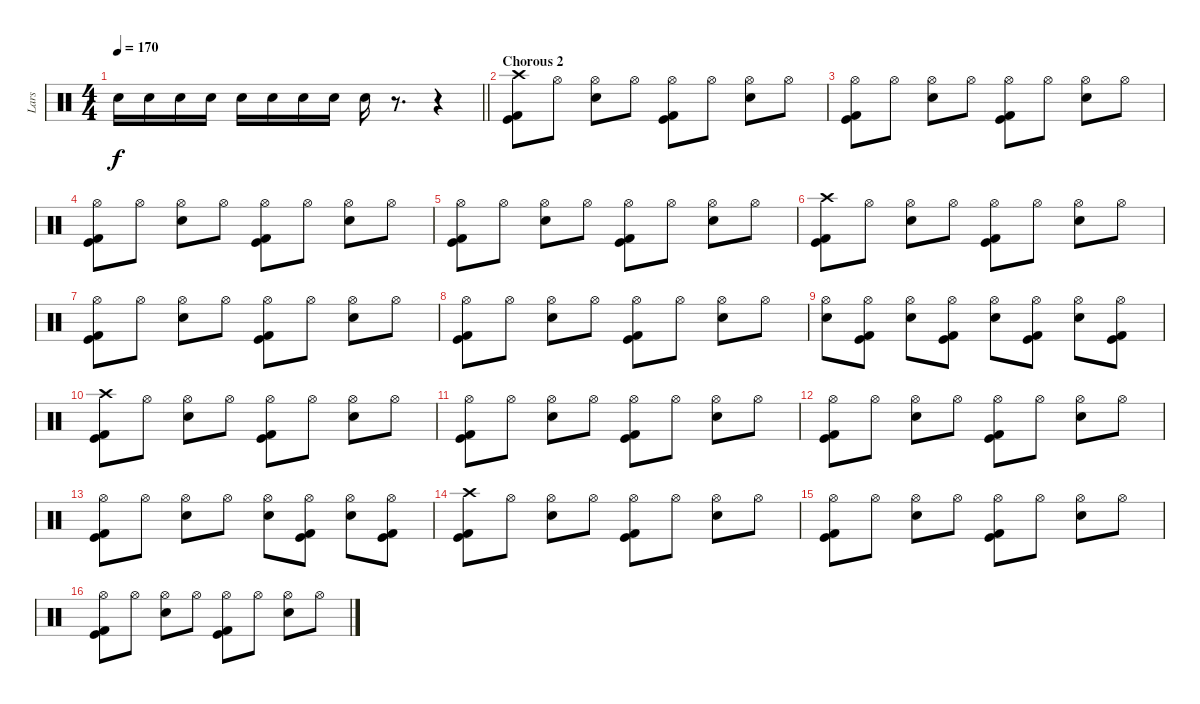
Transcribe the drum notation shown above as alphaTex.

\track ("Lars" "Lars") {instrument percussion}
\staff {score}
\articulation defaults
\ts (4 4)
\tempo 170
\clef neutral
\barLineRight lightlight
\ks c "Electric Snare (hit)".16{dy f} "Electric Snare (hit)".16 "Electric Snare (hit)".16 "Electric Snare (hit)".16 "Electric Snare (hit)".16 "Electric Snare (hit)".16 "Electric Snare (hit)".16 "Electric Snare (hit)".16 "Electric Snare (hit)".16
r.8{d} r.4 |
\section ("" "Chorous 2")
("Crash high (hit)" "Kick (hit)" "Kick (hit) 2").8 "Hi-Hat (open)".8 ("Hi-Hat (open)" "Electric Snare (hit)").8 "Hi-Hat (open)".8 ("Hi-Hat (open)" "Kick (hit)" "Kick (hit) 2").8 "Hi-Hat (open)".8 ("Hi-Hat (open)" "Electric Snare (hit)").8 "Hi-Hat (open)".8 |
("Hi-Hat (open)" "Kick (hit)" "Kick (hit) 2").8 "Hi-Hat (open)".8 ("Hi-Hat (open)" "Electric Snare (hit)").8 "Hi-Hat (open)".8 ("Hi-Hat (open)" "Kick (hit)" "Kick (hit) 2").8 "Hi-Hat (open)".8 ("Hi-Hat (open)" "Electric Snare (hit)").8 "Hi-Hat (open)".8 |
("Hi-Hat (open)" "Kick (hit)" "Kick (hit) 2").8 "Hi-Hat (open)".8 ("Hi-Hat (open)" "Electric Snare (hit)").8 "Hi-Hat (open)".8 ("Hi-Hat (open)" "Kick (hit)" "Kick (hit) 2").8 "Hi-Hat (open)".8 ("Hi-Hat (open)" "Electric Snare (hit)").8 "Hi-Hat (open)".8 |
("Hi-Hat (open)" "Kick (hit)" "Kick (hit) 2").8 "Hi-Hat (open)".8 ("Hi-Hat (open)" "Electric Snare (hit)").8 "Hi-Hat (open)".8 ("Hi-Hat (open)" "Kick (hit)" "Kick (hit) 2").8 "Hi-Hat (open)".8 ("Hi-Hat (open)" "Electric Snare (hit)").8 "Hi-Hat (open)".8 |
("Crash high (hit)" "Kick (hit)" "Kick (hit) 2").8 "Hi-Hat (open)".8 ("Hi-Hat (open)" "Electric Snare (hit)").8 "Hi-Hat (open)".8 ("Hi-Hat (open)" "Kick (hit)" "Kick (hit) 2").8 "Hi-Hat (open)".8 ("Hi-Hat (open)" "Electric Snare (hit)").8 "Hi-Hat (open)".8 |
("Hi-Hat (open)" "Kick (hit)" "Kick (hit) 2").8 "Hi-Hat (open)".8 ("Hi-Hat (open)" "Electric Snare (hit)").8 "Hi-Hat (open)".8 ("Hi-Hat (open)" "Kick (hit)" "Kick (hit) 2").8 "Hi-Hat (open)".8 ("Hi-Hat (open)" "Electric Snare (hit)").8 "Hi-Hat (open)".8 |
("Hi-Hat (open)" "Kick (hit)" "Kick (hit) 2").8 "Hi-Hat (open)".8 ("Hi-Hat (open)" "Electric Snare (hit)").8 "Hi-Hat (open)".8 ("Hi-Hat (open)" "Kick (hit)" "Kick (hit) 2").8 "Hi-Hat (open)".8 ("Hi-Hat (open)" "Electric Snare (hit)").8 "Hi-Hat (open)".8 |
("Hi-Hat (open)" "Electric Snare (hit)").8 ("Hi-Hat (open)" "Kick (hit)" "Kick (hit) 2").8 ("Hi-Hat (open)" "Electric Snare (hit)").8 ("Hi-Hat (open)" "Kick (hit)" "Kick (hit) 2").8 ("Hi-Hat (open)" "Electric Snare (hit)").8 ("Hi-Hat (open)" "Kick (hit)" "Kick (hit) 2").8 ("Hi-Hat (open)" "Electric Snare (hit)").8 ("Hi-Hat (open)" "Kick (hit)" "Kick (hit) 2").8 |
("Crash high (hit)" "Kick (hit)" "Kick (hit) 2").8 "Hi-Hat (open)".8 ("Hi-Hat (open)" "Electric Snare (hit)").8 "Hi-Hat (open)".8 ("Hi-Hat (open)" "Kick (hit)" "Kick (hit) 2").8 "Hi-Hat (open)".8 ("Hi-Hat (open)" "Electric Snare (hit)").8 "Hi-Hat (open)".8 |
("Hi-Hat (open)" "Kick (hit)" "Kick (hit) 2").8 "Hi-Hat (open)".8 ("Hi-Hat (open)" "Electric Snare (hit)").8 "Hi-Hat (open)".8 ("Hi-Hat (open)" "Kick (hit)" "Kick (hit) 2").8 "Hi-Hat (open)".8 ("Hi-Hat (open)" "Electric Snare (hit)").8 "Hi-Hat (open)".8 |
("Hi-Hat (open)" "Kick (hit)" "Kick (hit) 2").8 "Hi-Hat (open)".8 ("Hi-Hat (open)" "Electric Snare (hit)").8 "Hi-Hat (open)".8 ("Hi-Hat (open)" "Kick (hit)" "Kick (hit) 2").8 "Hi-Hat (open)".8 ("Hi-Hat (open)" "Electric Snare (hit)").8 "Hi-Hat (open)".8 |
("Hi-Hat (open)" "Kick (hit)" "Kick (hit) 2").8 "Hi-Hat (open)".8 ("Hi-Hat (open)" "Electric Snare (hit)").8 "Hi-Hat (open)".8 ("Hi-Hat (open)" "Electric Snare (hit)").8 ("Hi-Hat (open)" "Kick (hit)" "Kick (hit) 2").8 ("Hi-Hat (open)" "Electric Snare (hit)").8 ("Hi-Hat (open)" "Kick (hit)" "Kick (hit) 2").8 |
("Crash high (hit)" "Kick (hit)" "Kick (hit) 2").8 "Hi-Hat (open)".8 ("Hi-Hat (open)" "Electric Snare (hit)").8 "Hi-Hat (open)".8 ("Hi-Hat (open)" "Kick (hit)" "Kick (hit) 2").8 "Hi-Hat (open)".8 ("Hi-Hat (open)" "Electric Snare (hit)").8 "Hi-Hat (open)".8 |
("Hi-Hat (open)" "Kick (hit)" "Kick (hit) 2").8 "Hi-Hat (open)".8 ("Hi-Hat (open)" "Electric Snare (hit)").8 "Hi-Hat (open)".8 ("Hi-Hat (open)" "Kick (hit)" "Kick (hit) 2").8 "Hi-Hat (open)".8 ("Hi-Hat (open)" "Electric Snare (hit)").8 "Hi-Hat (open)".8 |
("Hi-Hat (open)" "Kick (hit)" "Kick (hit) 2").8 "Hi-Hat (open)".8 ("Hi-Hat (open)" "Electric Snare (hit)").8 "Hi-Hat (open)".8 ("Hi-Hat (open)" "Kick (hit)" "Kick (hit) 2").8 "Hi-Hat (open)".8 ("Hi-Hat (open)" "Electric Snare (hit)").8 "Hi-Hat (open)".8
